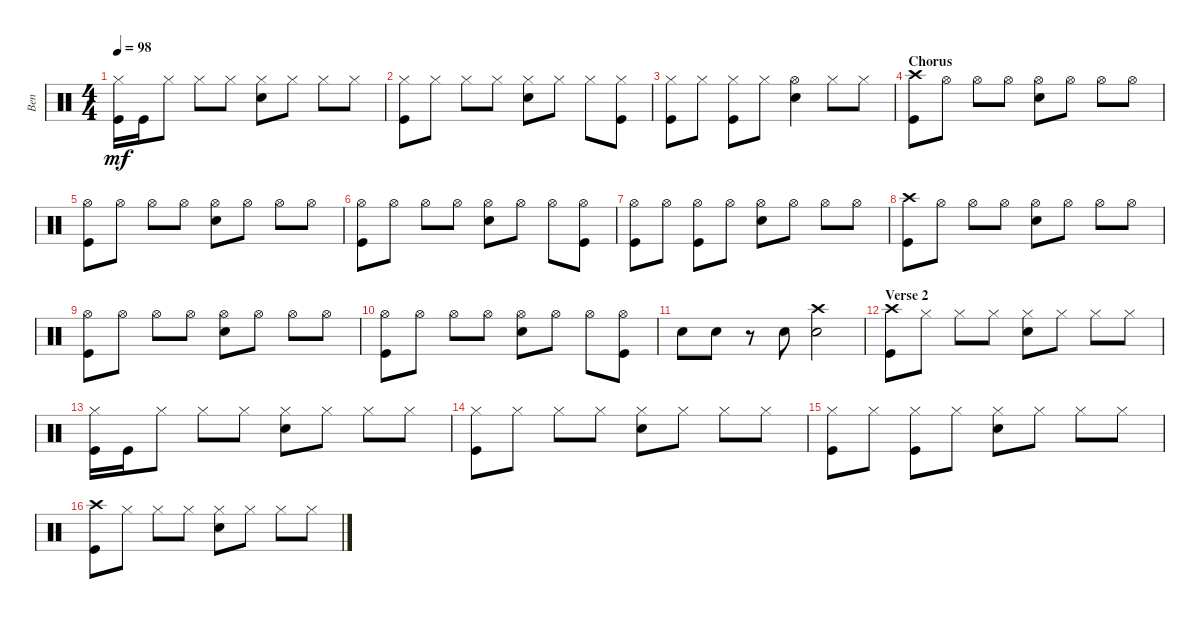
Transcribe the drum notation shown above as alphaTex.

\track ("Ben" "Ben") {instrument percussion}
\staff {score}
\articulation defaults
\ts (4 4)
\tempo 98
\clef neutral
\ks c
("Kick (hit)" "Hi-Hat (closed)").16{dy mf} "Kick (hit)".16 "Hi-Hat (closed)".8 "Hi-Hat (closed)".8 "Hi-Hat (closed)".8 ("Hi-Hat (closed)" "Snare (hit) 2").8 "Hi-Hat (closed)".8 "Hi-Hat (closed)".8 "Hi-Hat (closed)".8 |
("Kick (hit)" "Hi-Hat (closed)").8 "Hi-Hat (closed)".8 "Hi-Hat (closed)".8 "Hi-Hat (closed)".8 ("Hi-Hat (closed)" "Snare (hit) 2").8 "Hi-Hat (closed)".8 "Hi-Hat (closed)".8 ("Hi-Hat (closed)" "Kick (hit)").8 |
("Hi-Hat (closed)" "Kick (hit)").8 "Hi-Hat (closed)".8 ("Hi-Hat (closed)" "Kick (hit)").8 "Hi-Hat (closed)".8 ("Hi-Hat (open)" "Snare (hit) 2").4 "Hi-Hat (closed)".8 "Hi-Hat (closed)".8 |
\section ("" "Chorus")
("Crash high (hit)" "Kick (hit)").8 "Hi-Hat (open)".8 "Hi-Hat (open)".8 "Hi-Hat (open)".8 ("Hi-Hat (open)" "Snare (hit) 2").8 "Hi-Hat (open)".8 "Hi-Hat (open)".8 "Hi-Hat (open)".8 |
("Kick (hit)" "Hi-Hat (open)").8 "Hi-Hat (open)".8 "Hi-Hat (open)".8 "Hi-Hat (open)".8 ("Hi-Hat (open)" "Snare (hit) 2").8 "Hi-Hat (open)".8 "Hi-Hat (open)".8 "Hi-Hat (open)".8 |
("Kick (hit)" "Hi-Hat (open)").8 "Hi-Hat (open)".8 "Hi-Hat (open)".8 "Hi-Hat (open)".8 ("Hi-Hat (open)" "Snare (hit) 2").8 "Hi-Hat (open)".8 "Hi-Hat (open)".8 ("Hi-Hat (open)" "Kick (hit)").8 |
("Kick (hit)" "Hi-Hat (open)").8 "Hi-Hat (open)".8 ("Hi-Hat (open)" "Kick (hit)").8 "Hi-Hat (open)".8 ("Hi-Hat (open)" "Snare (hit) 2").8 "Hi-Hat (open)".8 "Hi-Hat (open)".8 "Hi-Hat (open)".8 |
("Crash high (hit)" "Kick (hit)").8 "Hi-Hat (open)".8 "Hi-Hat (open)".8 "Hi-Hat (open)".8 ("Hi-Hat (open)" "Snare (hit) 2").8 "Hi-Hat (open)".8 "Hi-Hat (open)".8 "Hi-Hat (open)".8 |
("Kick (hit)" "Hi-Hat (open)").8 "Hi-Hat (open)".8 "Hi-Hat (open)".8 "Hi-Hat (open)".8 ("Hi-Hat (open)" "Snare (hit) 2").8 "Hi-Hat (open)".8 "Hi-Hat (open)".8 "Hi-Hat (open)".8 |
("Kick (hit)" "Hi-Hat (open)").8 "Hi-Hat (open)".8 "Hi-Hat (open)".8 "Hi-Hat (open)".8 ("Hi-Hat (open)" "Snare (hit) 2").8 "Hi-Hat (open)".8 "Hi-Hat (open)".8 ("Hi-Hat (open)" "Kick (hit)").8 |
"Snare (hit) 2".8 "Snare (hit) 2".8 r.8 "Snare (hit) 2".8 ("Snare (hit) 2" "Crash high (hit)").2 |
\section ("" "Verse 2")
("Kick (hit)" "Crash high (hit)").8 "Hi-Hat (closed)".8 "Hi-Hat (closed)".8 "Hi-Hat (closed)".8 ("Hi-Hat (closed)" "Snare (hit) 2").8 "Hi-Hat (closed)".8 "Hi-Hat (closed)".8 "Hi-Hat (closed)".8 |
("Kick (hit)" "Hi-Hat (closed)").16 "Kick (hit)".16 "Hi-Hat (closed)".8 "Hi-Hat (closed)".8 "Hi-Hat (closed)".8 ("Hi-Hat (closed)" "Snare (hit) 2").8 "Hi-Hat (closed)".8 "Hi-Hat (closed)".8 "Hi-Hat (closed)".8 |
("Kick (hit)" "Hi-Hat (closed)").8 "Hi-Hat (closed)".8 "Hi-Hat (closed)".8 "Hi-Hat (closed)".8 ("Hi-Hat (closed)" "Snare (hit) 2").8 "Hi-Hat (closed)".8 "Hi-Hat (closed)".8 "Hi-Hat (closed)".8 |
("Kick (hit)" "Hi-Hat (closed)").8 "Hi-Hat (closed)".8 ("Kick (hit)" "Hi-Hat (closed)").8 "Hi-Hat (closed)".8 ("Snare (hit) 2" "Hi-Hat (closed)").8 "Hi-Hat (closed)".8 "Hi-Hat (closed)".8 "Hi-Hat (closed)".8 |
("Kick (hit)" "Crash high (hit)").8 "Hi-Hat (closed)".8 "Hi-Hat (closed)".8 "Hi-Hat (closed)".8 ("Hi-Hat (closed)" "Snare (hit) 2").8 "Hi-Hat (closed)".8 "Hi-Hat (closed)".8 "Hi-Hat (closed)".8
